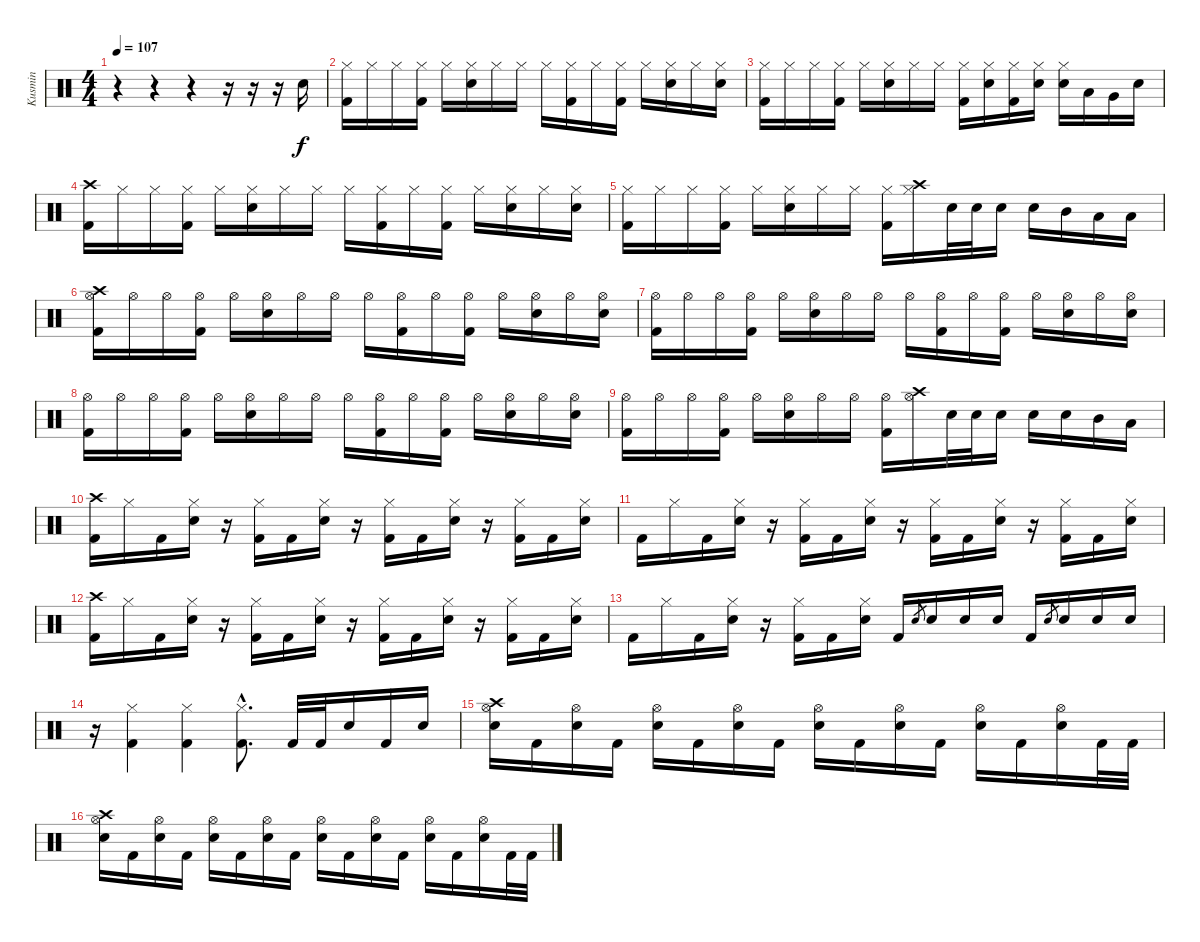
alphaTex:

\track ("Kusmin" "Kusmin") {instrument percussion}
\staff {score}
\articulation defaults
\ts (4 4)
\tempo 107
\clef neutral
\ks c
r.4{dy f} r.4 r.4 r.16 r.16 r.16 "Snare (hit) 2".16 |
("Hi-Hat (closed)" "Kick (hit) 2").16 "Hi-Hat (closed)".16 "Hi-Hat (closed)".16 ("Hi-Hat (closed)" "Kick (hit) 2").16 "Hi-Hat (closed)".16 ("Hi-Hat (closed)" "Snare (hit) 2").16 "Hi-Hat (closed)".16 "Hi-Hat (closed)".16 "Hi-Hat (closed)".16 ("Hi-Hat (closed)" "Kick (hit) 2").16 "Hi-Hat (closed)".16 ("Hi-Hat (closed)" "Kick (hit) 2").16 "Hi-Hat (closed)".16 ("Hi-Hat (closed)" "Snare (hit) 2").16 "Hi-Hat (closed)".16 ("Hi-Hat (closed)" "Snare (hit) 2").16 |
("Hi-Hat (closed)" "Kick (hit) 2").16 "Hi-Hat (closed)".16 "Hi-Hat (closed)".16 ("Hi-Hat (closed)" "Kick (hit) 2").16 "Hi-Hat (closed)".16 ("Hi-Hat (closed)" "Snare (hit) 2").16 "Hi-Hat (closed)".16 "Hi-Hat (closed)".16 ("Hi-Hat (closed)" "Kick (hit) 2").16 ("Hi-Hat (closed)" "Snare (hit) 2").16 ("Hi-Hat (closed)" "Kick (hit) 2").16 ("Hi-Hat (closed)" "Snare (hit) 2").16 ("Hi-Hat (closed)" "Snare (hit) 2").16 "Low Tom (hit)".16 "Very Low Tom (hit)".16 "Snare (hit) 2".16 |
("Crash high (hit)" "Kick (hit) 2").16 "Hi-Hat (closed)".16 "Hi-Hat (closed)".16 ("Hi-Hat (closed)" "Kick (hit) 2").16 "Hi-Hat (closed)".16 ("Hi-Hat (closed)" "Snare (hit) 2").16 "Hi-Hat (closed)".16 "Hi-Hat (closed)".16 "Hi-Hat (closed)".16 ("Hi-Hat (closed)" "Kick (hit) 2").16 "Hi-Hat (closed)".16 ("Hi-Hat (closed)" "Kick (hit) 2").16 "Hi-Hat (closed)".16 ("Hi-Hat (closed)" "Snare (hit) 2").16 "Hi-Hat (closed)".16 ("Hi-Hat (closed)" "Snare (hit) 2").16 |
("Hi-Hat (closed)" "Kick (hit) 2").16 "Hi-Hat (closed)".16 "Hi-Hat (closed)".16 ("Hi-Hat (closed)" "Kick (hit) 2").16 "Hi-Hat (closed)".16 ("Hi-Hat (closed)" "Snare (hit) 2").16 "Hi-Hat (closed)".16 "Hi-Hat (closed)".16 ("Hi-Hat (closed)" "Kick (hit) 2").16 ("Crash high (hit)" "Hi-Hat (closed)").16 "Snare (hit) 2".32 "Snare (hit) 2".32 "Snare (hit) 2".16 "Snare (hit) 2".16 "Mid Tom (hit)".16 "Low Tom (hit)".16 "Low Floor Tom (hit)".16 |
("Crash high (hit)" "Hi-Hat (open)" "Kick (hit) 2").16 "Hi-Hat (open)".16 "Hi-Hat (open)".16 ("Hi-Hat (open)" "Kick (hit) 2").16 "Hi-Hat (open)".16 ("Hi-Hat (open)" "Snare (hit) 2").16 "Hi-Hat (open)".16 "Hi-Hat (open)".16 "Hi-Hat (open)".16 ("Hi-Hat (open)" "Kick (hit) 2").16 "Hi-Hat (open)".16 ("Hi-Hat (open)" "Kick (hit) 2").16 "Hi-Hat (open)".16 ("Hi-Hat (open)" "Snare (hit) 2").16 "Hi-Hat (open)".16 ("Hi-Hat (open)" "Snare (hit) 2").16 |
("Hi-Hat (open)" "Kick (hit) 2").16 "Hi-Hat (open)".16 "Hi-Hat (open)".16 ("Hi-Hat (open)" "Kick (hit) 2").16 "Hi-Hat (open)".16 ("Hi-Hat (open)" "Snare (hit) 2").16 "Hi-Hat (open)".16 "Hi-Hat (open)".16 "Hi-Hat (open)".16 ("Hi-Hat (open)" "Kick (hit) 2").16 "Hi-Hat (open)".16 ("Hi-Hat (open)" "Kick (hit) 2").16 "Hi-Hat (open)".16 ("Hi-Hat (open)" "Snare (hit) 2").16 "Hi-Hat (open)".16 ("Hi-Hat (open)" "Snare (hit) 2").16 |
("Hi-Hat (open)" "Kick (hit) 2").16 "Hi-Hat (open)".16 "Hi-Hat (open)".16 ("Hi-Hat (open)" "Kick (hit) 2").16 "Hi-Hat (open)".16 ("Hi-Hat (open)" "Snare (hit) 2").16 "Hi-Hat (open)".16 "Hi-Hat (open)".16 "Hi-Hat (open)".16 ("Hi-Hat (open)" "Kick (hit) 2").16 "Hi-Hat (open)".16 ("Hi-Hat (open)" "Kick (hit) 2").16 "Hi-Hat (open)".16 ("Hi-Hat (open)" "Snare (hit) 2").16 "Hi-Hat (open)".16 ("Hi-Hat (open)" "Snare (hit) 2").16 |
("Hi-Hat (open)" "Kick (hit) 2").16 "Hi-Hat (open)".16 "Hi-Hat (open)".16 ("Hi-Hat (open)" "Kick (hit) 2").16 "Hi-Hat (open)".16 ("Hi-Hat (open)" "Snare (hit) 2").16 "Hi-Hat (open)".16 "Hi-Hat (open)".16 ("Hi-Hat (open)" "Kick (hit) 2").16 ("Crash high (hit)" "Hi-Hat (open)").16 "Snare (hit) 2".32 "Snare (hit) 2".32 "Snare (hit) 2".16 "Snare (hit) 2".16 "Snare (hit) 2".16 "Mid Tom (hit)".16 "Low Tom (hit)".16 |
("Crash high (hit)" "Kick (hit) 2").16 "Hi-Hat (closed)".16 "Kick (hit) 2".16 ("Hi-Hat (closed)" "Snare (hit) 2").16 r.16 ("Hi-Hat (closed)" "Kick (hit) 2").16 "Kick (hit) 2".16 ("Hi-Hat (closed)" "Snare (hit) 2").16 r.16 ("Hi-Hat (closed)" "Kick (hit) 2").16 "Kick (hit) 2".16 ("Hi-Hat (closed)" "Snare (hit) 2").16 r.16 ("Hi-Hat (closed)" "Kick (hit) 2").16 "Kick (hit) 2".16 ("Hi-Hat (closed)" "Snare (hit) 2").16 |
"Kick (hit) 2".16 "Hi-Hat (closed)".16 "Kick (hit) 2".16 ("Hi-Hat (closed)" "Snare (hit) 2").16 r.16 ("Hi-Hat (closed)" "Kick (hit) 2").16 "Kick (hit) 2".16 ("Hi-Hat (closed)" "Snare (hit) 2").16 r.16 ("Hi-Hat (closed)" "Kick (hit) 2").16 "Kick (hit) 2".16 ("Hi-Hat (closed)" "Snare (hit) 2").16 r.16 ("Hi-Hat (closed)" "Kick (hit) 2").16 "Kick (hit) 2".16 ("Hi-Hat (closed)" "Snare (hit) 2").16 |
("Crash high (hit)" "Kick (hit) 2").16 "Hi-Hat (closed)".16 "Kick (hit) 2".16 ("Hi-Hat (closed)" "Snare (hit) 2").16 r.16 ("Hi-Hat (closed)" "Kick (hit) 2").16 "Kick (hit) 2".16 ("Hi-Hat (closed)" "Snare (hit) 2").16 r.16 ("Hi-Hat (closed)" "Kick (hit) 2").16 "Kick (hit) 2".16 ("Hi-Hat (closed)" "Snare (hit) 2").16 r.16 ("Hi-Hat (closed)" "Kick (hit) 2").16 "Kick (hit) 2".16 ("Hi-Hat (closed)" "Snare (hit) 2").16 |
"Kick (hit) 2".16 "Hi-Hat (closed)".16 "Kick (hit) 2".16 ("Hi-Hat (closed)" "Snare (hit) 2").16 r.16 ("Hi-Hat (closed)" "Kick (hit) 2").16 "Kick (hit) 2".16 ("Hi-Hat (closed)" "Snare (hit) 2").16 "Kick (hit) 2".16 "Snare (hit) 2".8{gr} "Snare (hit) 2".16 "Snare (hit) 2".16 "Snare (hit) 2".16 "Kick (hit) 2".16 "Snare (hit) 2".8{gr} "Snare (hit) 2".16 "Snare (hit) 2".16 "Snare (hit) 2".16 |
r.16 ("Hi-Hat (closed)" "Kick (hit) 2").4 ("Hi-Hat (closed)" "Kick (hit) 2").4 ("Hi-Hat (closed)"{hac} "Kick (hit) 2"{hac}).8{d} "Kick (hit) 2".32 "Kick (hit) 2".32 "Snare (hit) 2".16 "Kick (hit) 2".16 "Snare (hit) 2".16 |
("Crash high (hit)" "Hi-Hat (open)" "Snare (hit) 2").16 "Kick (hit) 2".16 ("Hi-Hat (open)" "Snare (hit) 2").16 "Kick (hit) 2".16 ("Hi-Hat (open)" "Snare (hit) 2").16 "Kick (hit) 2".16 ("Hi-Hat (open)" "Snare (hit) 2").16 "Kick (hit) 2".16 ("Hi-Hat (open)" "Snare (hit) 2").16 "Kick (hit) 2".16 ("Hi-Hat (open)" "Snare (hit) 2").16 "Kick (hit) 2".16 ("Hi-Hat (open)" "Snare (hit) 2").16 "Kick (hit) 2".16 ("Hi-Hat (open)" "Snare (hit) 2").16 "Kick (hit) 2".32 "Kick (hit) 2".32 |
("Crash high (hit)" "Hi-Hat (open)" "Snare (hit) 2").16 "Kick (hit) 2".16 ("Hi-Hat (open)" "Snare (hit) 2").16 "Kick (hit) 2".16 ("Hi-Hat (open)" "Snare (hit) 2").16 "Kick (hit) 2".16 ("Hi-Hat (open)" "Snare (hit) 2").16 "Kick (hit) 2".16 ("Hi-Hat (open)" "Snare (hit) 2").16 "Kick (hit) 2".16 ("Hi-Hat (open)" "Snare (hit) 2").16 "Kick (hit) 2".16 ("Hi-Hat (open)" "Snare (hit) 2").16 "Kick (hit) 2".16 ("Hi-Hat (open)" "Snare (hit) 2").16 "Kick (hit) 2".32 "Kick (hit) 2".32
